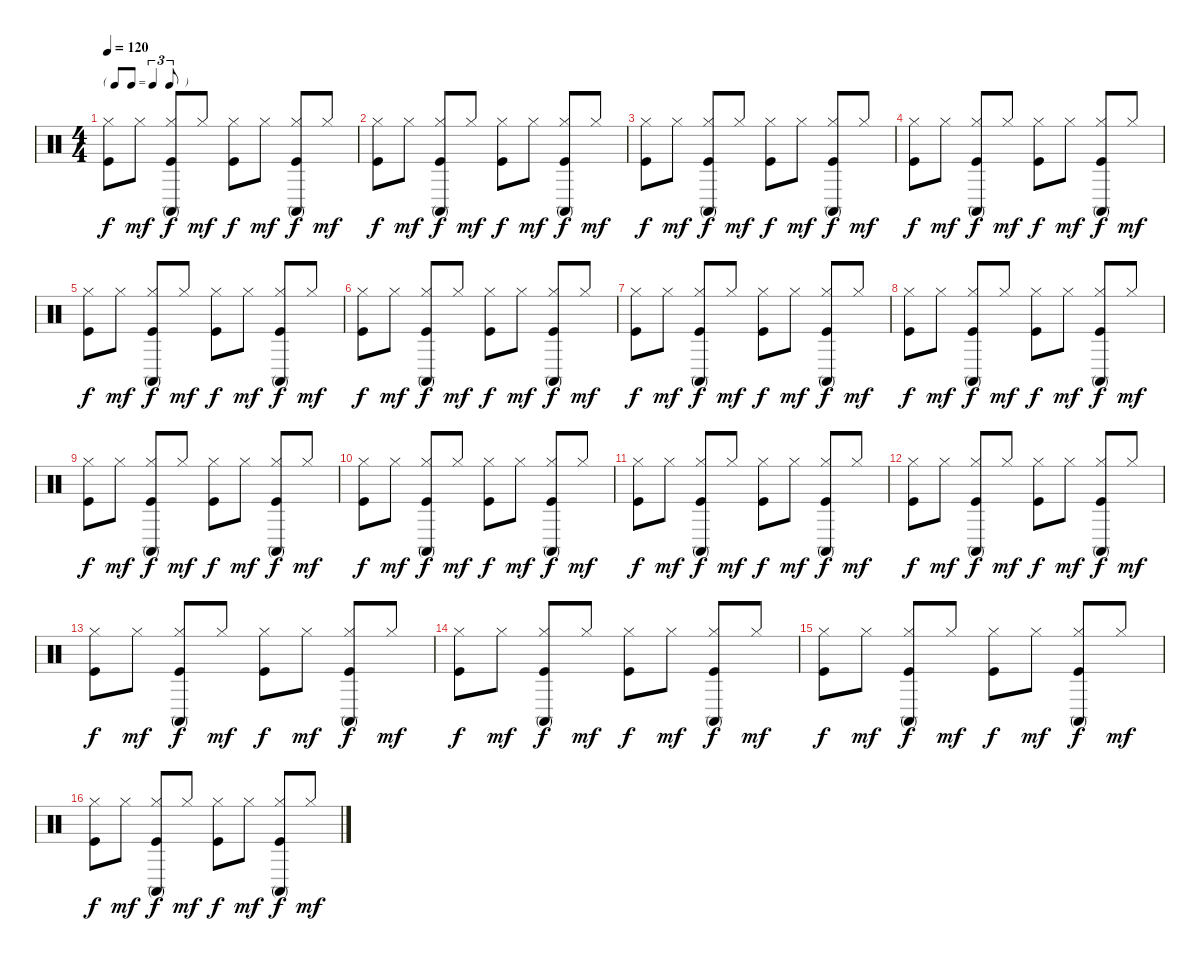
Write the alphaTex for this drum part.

\track "" {instrument percussion}
\staff {score}
\articulation defaults
\ts (4 4)
\tf triplet8th
\tempo 120
\clef neutral
\ks c
("Hi-Hat (closed)" "Kick (hit)").8{dy f} "Hi-Hat (closed)".8{dy mf} ("Conga high (mute)" "Hi-Hat (closed)" "Kick (hit)").8{dy f} "Hi-Hat (closed)".8{dy mf} ("Hi-Hat (closed)" "Kick (hit)").8{dy f} "Hi-Hat (closed)".8{dy mf} ("Conga high (mute)" "Hi-Hat (closed)" "Kick (hit)").8{dy f} "Hi-Hat (closed)".8{dy mf} |
("Hi-Hat (closed)" "Kick (hit)").8{dy f} "Hi-Hat (closed)".8{dy mf} ("Conga high (mute)" "Hi-Hat (closed)" "Kick (hit)").8{dy f} "Hi-Hat (closed)".8{dy mf} ("Hi-Hat (closed)" "Kick (hit)").8{dy f} "Hi-Hat (closed)".8{dy mf} ("Conga high (mute)" "Hi-Hat (closed)" "Kick (hit)").8{dy f} "Hi-Hat (closed)".8{dy mf} |
("Hi-Hat (closed)" "Kick (hit)").8{dy f} "Hi-Hat (closed)".8{dy mf} ("Conga high (mute)" "Hi-Hat (closed)" "Kick (hit)").8{dy f} "Hi-Hat (closed)".8{dy mf} ("Hi-Hat (closed)" "Kick (hit)").8{dy f} "Hi-Hat (closed)".8{dy mf} ("Conga high (mute)" "Hi-Hat (closed)" "Kick (hit)").8{dy f} "Hi-Hat (closed)".8{dy mf} |
("Hi-Hat (closed)" "Kick (hit)").8{dy f} "Hi-Hat (closed)".8{dy mf} ("Conga high (mute)" "Hi-Hat (closed)" "Kick (hit)").8{dy f} "Hi-Hat (closed)".8{dy mf} ("Hi-Hat (closed)" "Kick (hit)").8{dy f} "Hi-Hat (closed)".8{dy mf} ("Conga high (mute)" "Hi-Hat (closed)" "Kick (hit)").8{dy f} "Hi-Hat (closed)".8{dy mf} |
("Hi-Hat (closed)" "Kick (hit)").8{dy f} "Hi-Hat (closed)".8{dy mf} ("Conga high (mute)" "Hi-Hat (closed)" "Kick (hit)").8{dy f} "Hi-Hat (closed)".8{dy mf} ("Hi-Hat (closed)" "Kick (hit)").8{dy f} "Hi-Hat (closed)".8{dy mf} ("Conga high (mute)" "Hi-Hat (closed)" "Kick (hit)").8{dy f} "Hi-Hat (closed)".8{dy mf} |
("Hi-Hat (closed)" "Kick (hit)").8{dy f} "Hi-Hat (closed)".8{dy mf} ("Conga high (mute)" "Hi-Hat (closed)" "Kick (hit)").8{dy f} "Hi-Hat (closed)".8{dy mf} ("Hi-Hat (closed)" "Kick (hit)").8{dy f} "Hi-Hat (closed)".8{dy mf} ("Conga high (mute)" "Hi-Hat (closed)" "Kick (hit)").8{dy f} "Hi-Hat (closed)".8{dy mf} |
("Hi-Hat (closed)" "Kick (hit)").8{dy f} "Hi-Hat (closed)".8{dy mf} ("Conga high (mute)" "Hi-Hat (closed)" "Kick (hit)").8{dy f} "Hi-Hat (closed)".8{dy mf} ("Hi-Hat (closed)" "Kick (hit)").8{dy f} "Hi-Hat (closed)".8{dy mf} ("Conga high (mute)" "Hi-Hat (closed)" "Kick (hit)").8{dy f} "Hi-Hat (closed)".8{dy mf} |
("Hi-Hat (closed)" "Kick (hit)").8{dy f} "Hi-Hat (closed)".8{dy mf} ("Conga high (mute)" "Hi-Hat (closed)" "Kick (hit)").8{dy f} "Hi-Hat (closed)".8{dy mf} ("Hi-Hat (closed)" "Kick (hit)").8{dy f} "Hi-Hat (closed)".8{dy mf} ("Conga high (mute)" "Hi-Hat (closed)" "Kick (hit)").8{dy f} "Hi-Hat (closed)".8{dy mf} |
("Hi-Hat (closed)" "Kick (hit)").8{dy f} "Hi-Hat (closed)".8{dy mf} ("Conga high (mute)" "Hi-Hat (closed)" "Kick (hit)").8{dy f} "Hi-Hat (closed)".8{dy mf} ("Hi-Hat (closed)" "Kick (hit)").8{dy f} "Hi-Hat (closed)".8{dy mf} ("Conga high (mute)" "Hi-Hat (closed)" "Kick (hit)").8{dy f} "Hi-Hat (closed)".8{dy mf} |
("Hi-Hat (closed)" "Kick (hit)").8{dy f} "Hi-Hat (closed)".8{dy mf} ("Conga high (mute)" "Hi-Hat (closed)" "Kick (hit)").8{dy f} "Hi-Hat (closed)".8{dy mf} ("Hi-Hat (closed)" "Kick (hit)").8{dy f} "Hi-Hat (closed)".8{dy mf} ("Conga high (mute)" "Hi-Hat (closed)" "Kick (hit)").8{dy f} "Hi-Hat (closed)".8{dy mf} |
("Hi-Hat (closed)" "Kick (hit)").8{dy f} "Hi-Hat (closed)".8{dy mf} ("Conga high (mute)" "Hi-Hat (closed)" "Kick (hit)").8{dy f} "Hi-Hat (closed)".8{dy mf} ("Hi-Hat (closed)" "Kick (hit)").8{dy f} "Hi-Hat (closed)".8{dy mf} ("Conga high (mute)" "Hi-Hat (closed)" "Kick (hit)").8{dy f} "Hi-Hat (closed)".8{dy mf} |
("Hi-Hat (closed)" "Kick (hit)").8{dy f} "Hi-Hat (closed)".8{dy mf} ("Conga high (mute)" "Hi-Hat (closed)" "Kick (hit)").8{dy f} "Hi-Hat (closed)".8{dy mf} ("Hi-Hat (closed)" "Kick (hit)").8{dy f} "Hi-Hat (closed)".8{dy mf} ("Conga high (mute)" "Hi-Hat (closed)" "Kick (hit)").8{dy f} "Hi-Hat (closed)".8{dy mf} |
("Hi-Hat (closed)" "Kick (hit)").8{dy f} "Hi-Hat (closed)".8{dy mf} ("Conga high (mute)" "Hi-Hat (closed)" "Kick (hit)").8{dy f} "Hi-Hat (closed)".8{dy mf} ("Hi-Hat (closed)" "Kick (hit)").8{dy f} "Hi-Hat (closed)".8{dy mf} ("Conga high (mute)" "Hi-Hat (closed)" "Kick (hit)").8{dy f} "Hi-Hat (closed)".8{dy mf} |
("Hi-Hat (closed)" "Kick (hit)").8{dy f} "Hi-Hat (closed)".8{dy mf} ("Conga high (mute)" "Hi-Hat (closed)" "Kick (hit)").8{dy f} "Hi-Hat (closed)".8{dy mf} ("Hi-Hat (closed)" "Kick (hit)").8{dy f} "Hi-Hat (closed)".8{dy mf} ("Conga high (mute)" "Hi-Hat (closed)" "Kick (hit)").8{dy f} "Hi-Hat (closed)".8{dy mf} |
("Hi-Hat (closed)" "Kick (hit)").8{dy f} "Hi-Hat (closed)".8{dy mf} ("Conga high (mute)" "Hi-Hat (closed)" "Kick (hit)").8{dy f} "Hi-Hat (closed)".8{dy mf} ("Hi-Hat (closed)" "Kick (hit)").8{dy f} "Hi-Hat (closed)".8{dy mf} ("Conga high (mute)" "Hi-Hat (closed)" "Kick (hit)").8{dy f} "Hi-Hat (closed)".8{dy mf} |
("Hi-Hat (closed)" "Kick (hit)").8{dy f} "Hi-Hat (closed)".8{dy mf} ("Conga high (mute)" "Hi-Hat (closed)" "Kick (hit)").8{dy f} "Hi-Hat (closed)".8{dy mf} ("Hi-Hat (closed)" "Kick (hit)").8{dy f} "Hi-Hat (closed)".8{dy mf} ("Conga high (mute)" "Hi-Hat (closed)" "Kick (hit)").8{dy f} "Hi-Hat (closed)".8{dy mf}
